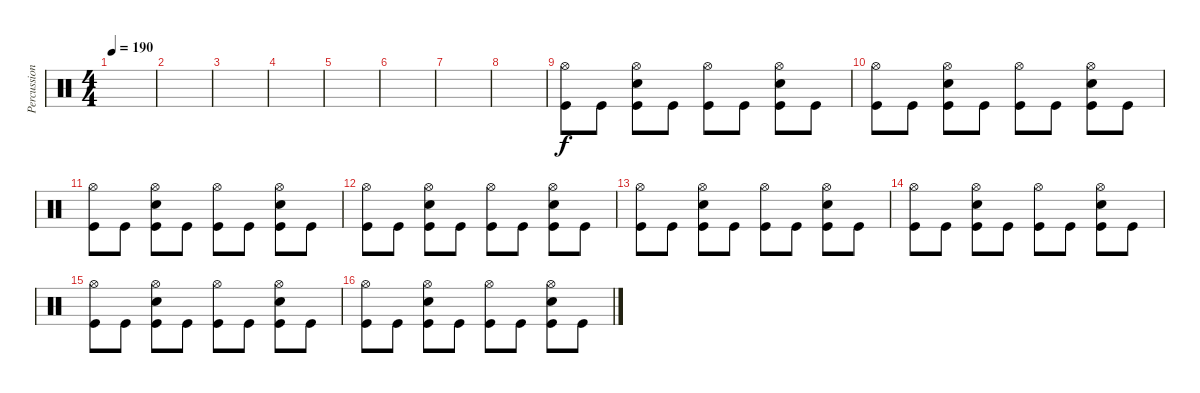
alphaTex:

\track ("Percussion" "Percussion") {instrument percussion}
\staff {score}
\articulation defaults
\ts (4 4)
\tempo 190
\clef neutral
\ks c
|
|
|
|
|
|
|
|
("Hi-Hat (open)" "Kick (hit)").8 "Kick (hit)".8 ("Hi-Hat (open)" "Snare (hit) 2" "Kick (hit)").8 "Kick (hit)".8 ("Hi-Hat (open)" "Kick (hit)").8 "Kick (hit)".8 ("Hi-Hat (open)" "Snare (hit) 2" "Kick (hit)").8 "Kick (hit)".8 |
("Hi-Hat (open)" "Kick (hit)").8 "Kick (hit)".8 ("Hi-Hat (open)" "Snare (hit) 2" "Kick (hit)").8 "Kick (hit)".8 ("Hi-Hat (open)" "Kick (hit)").8 "Kick (hit)".8 ("Hi-Hat (open)" "Snare (hit) 2" "Kick (hit)").8 "Kick (hit)".8 |
("Hi-Hat (open)" "Kick (hit)").8 "Kick (hit)".8 ("Hi-Hat (open)" "Snare (hit) 2" "Kick (hit)").8 "Kick (hit)".8 ("Hi-Hat (open)" "Kick (hit)").8 "Kick (hit)".8 ("Hi-Hat (open)" "Snare (hit) 2" "Kick (hit)").8 "Kick (hit)".8 |
("Hi-Hat (open)" "Kick (hit)").8 "Kick (hit)".8 ("Hi-Hat (open)" "Snare (hit) 2" "Kick (hit)").8 "Kick (hit)".8 ("Hi-Hat (open)" "Kick (hit)").8 "Kick (hit)".8 ("Hi-Hat (open)" "Snare (hit) 2" "Kick (hit)").8 "Kick (hit)".8 |
("Hi-Hat (open)" "Kick (hit)").8 "Kick (hit)".8 ("Hi-Hat (open)" "Snare (hit) 2" "Kick (hit)").8 "Kick (hit)".8 ("Hi-Hat (open)" "Kick (hit)").8 "Kick (hit)".8 ("Hi-Hat (open)" "Snare (hit) 2" "Kick (hit)").8 "Kick (hit)".8 |
("Hi-Hat (open)" "Kick (hit)").8 "Kick (hit)".8 ("Hi-Hat (open)" "Snare (hit) 2" "Kick (hit)").8 "Kick (hit)".8 ("Hi-Hat (open)" "Kick (hit)").8 "Kick (hit)".8 ("Hi-Hat (open)" "Snare (hit) 2" "Kick (hit)").8 "Kick (hit)".8 |
("Hi-Hat (open)" "Kick (hit)").8 "Kick (hit)".8 ("Hi-Hat (open)" "Snare (hit) 2" "Kick (hit)").8 "Kick (hit)".8 ("Hi-Hat (open)" "Kick (hit)").8 "Kick (hit)".8 ("Hi-Hat (open)" "Snare (hit) 2" "Kick (hit)").8 "Kick (hit)".8 |
("Hi-Hat (open)" "Kick (hit)").8 "Kick (hit)".8 ("Hi-Hat (open)" "Snare (hit) 2" "Kick (hit)").8 "Kick (hit)".8 ("Hi-Hat (open)" "Kick (hit)").8 "Kick (hit)".8 ("Hi-Hat (open)" "Snare (hit) 2" "Kick (hit)").8 "Kick (hit)".8
